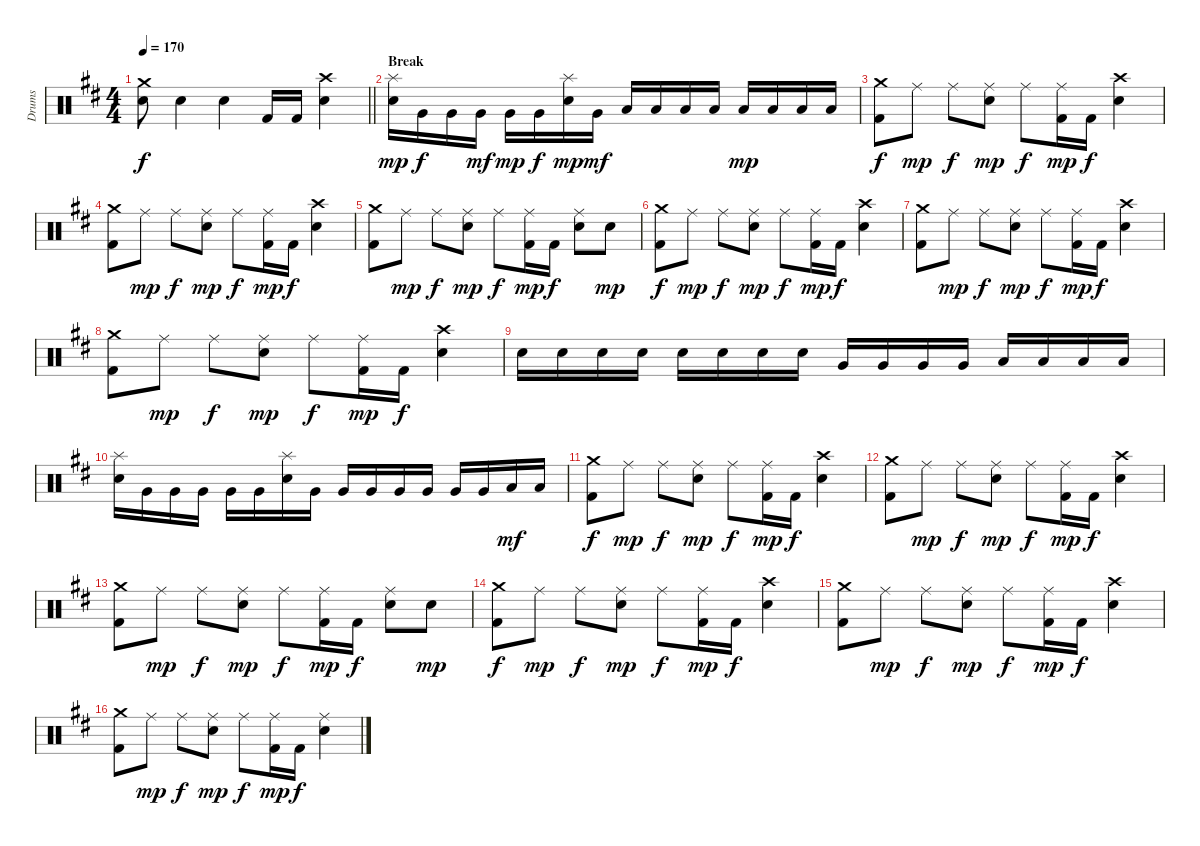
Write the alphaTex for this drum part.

\track ("Drums" "Drums") {instrument percussion}
\staff {score}
\articulation defaults
\ts (4 4)
\tempo 170
\clef neutral
\barLineRight lightlight
\ks d
("Crash medium (hit)" "Snare (hit) 2").8{dy f} "Snare (hit) 2".4 "Snare (hit) 2".4 "Kick (hit) 2".16 "Kick (hit) 2".16 ("Crash high (hit)" "Snare (hit) 2").4 |
\section ("" "Break")
("Splash (hit)" "Snare (hit) 2").16{dy mp} "Very Low Tom (hit)".16{dy f} "Very Low Tom (hit)".16 "Very Low Tom (hit)".16{dy mf} "Very Low Tom (hit)".16{dy mp} "Very Low Tom (hit)".16{dy f} ("Splash (hit)" "Snare (hit) 2").16{dy mp} "Very Low Tom (hit)".16{dy mf} "Low Floor Tom (hit)".16 "Low Floor Tom (hit)".16 "Low Floor Tom (hit)".16 "Low Floor Tom (hit)".16 "Low Floor Tom (hit)".16{dy mp} "Low Floor Tom (hit)".16 "Low Floor Tom (hit)".16 "Low Floor Tom (hit)".16 |
("Crash medium (hit)" "Kick (hit) 2").8{dy f} "Ride (middle)".8{dy mp} "Ride (middle)".8{dy f} ("Ride (middle)" "Snare (hit) 2").8{dy mp} "Ride (middle)".8{dy f} ("Ride (middle)" "Kick (hit) 2").16{dy mp} "Kick (hit) 2".16{dy f} ("Crash high (hit)" "Snare (hit) 2").4 |
("Crash medium (hit)" "Kick (hit) 2").8 "Ride (middle)".8{dy mp} "Ride (middle)".8{dy f} ("Ride (middle)" "Snare (hit) 2").8{dy mp} "Ride (middle)".8{dy f} ("Ride (middle)" "Kick (hit) 2").16{dy mp} "Kick (hit) 2".16{dy f} ("Crash high (hit)" "Snare (hit) 2").4 |
("Crash medium (hit)" "Kick (hit) 2").8 "Ride (middle)".8{dy mp} "Ride (middle)".8{dy f} ("Ride (middle)" "Snare (hit) 2").8{dy mp} "Ride (middle)".8{dy f} ("Ride (middle)" "Kick (hit) 2").16{dy mp} "Kick (hit) 2".16{dy f} ("Ride (middle)" "Snare (hit) 2").8 "Snare (hit) 2".8{dy mp} |
("Crash medium (hit)" "Kick (hit) 2").8{dy f} "Ride (middle)".8{dy mp} "Ride (middle)".8{dy f} ("Ride (middle)" "Snare (hit) 2").8{dy mp} "Ride (middle)".8{dy f} ("Ride (middle)" "Kick (hit) 2").16{dy mp} "Kick (hit) 2".16{dy f} ("Crash high (hit)" "Snare (hit) 2").4 |
("Crash medium (hit)" "Kick (hit) 2").8 "Ride (middle)".8{dy mp} "Ride (middle)".8{dy f} ("Ride (middle)" "Snare (hit) 2").8{dy mp} "Ride (middle)".8{dy f} ("Ride (middle)" "Kick (hit) 2").16{dy mp} "Kick (hit) 2".16{dy f} ("Crash high (hit)" "Snare (hit) 2").4 |
("Crash medium (hit)" "Kick (hit) 2").8 "Ride (middle)".8{dy mp} "Ride (middle)".8{dy f} ("Ride (middle)" "Snare (hit) 2").8{dy mp} "Ride (middle)".8{dy f} ("Ride (middle)" "Kick (hit) 2").16{dy mp} "Kick (hit) 2".16{dy f} ("Crash high (hit)" "Snare (hit) 2").4 |
"Snare (hit) 2".16 "Snare (hit) 2".16 "Snare (hit) 2".16 "Snare (hit) 2".16 "Snare (hit) 2".16 "Snare (hit) 2".16 "Snare (hit) 2".16 "Snare (hit) 2".16 "Very Low Tom (hit)".16 "Very Low Tom (hit)".16 "Very Low Tom (hit)".16 "Very Low Tom (hit)".16 "Low Floor Tom (hit)".16 "Low Floor Tom (hit)".16 "Low Floor Tom (hit)".16 "Low Floor Tom (hit)".16 |
("Splash (hit)" "Snare (hit) 2").16 "Very Low Tom (hit)".16 "Very Low Tom (hit)".16 "Very Low Tom (hit)".16 "Very Low Tom (hit)".16 "Very Low Tom (hit)".16 ("Splash (hit)" "Snare (hit) 2").16 "Very Low Tom (hit)".16 "Very Low Tom (hit)".16 "Very Low Tom (hit)".16 "Very Low Tom (hit)".16 "Very Low Tom (hit)".16 "Very Low Tom (hit)".16 "Very Low Tom (hit)".16 "Low Floor Tom (hit)".16{dy mf} "Low Floor Tom (hit)".16 |
("Crash medium (hit)" "Kick (hit) 2").8{dy f} "Ride (middle)".8{dy mp} "Ride (middle)".8{dy f} ("Ride (middle)" "Snare (hit) 2").8{dy mp} "Ride (middle)".8{dy f} ("Ride (middle)" "Kick (hit) 2").16{dy mp} "Kick (hit) 2".16{dy f} ("Crash high (hit)" "Snare (hit) 2").4 |
("Crash medium (hit)" "Kick (hit) 2").8 "Ride (middle)".8{dy mp} "Ride (middle)".8{dy f} ("Ride (middle)" "Snare (hit) 2").8{dy mp} "Ride (middle)".8{dy f} ("Ride (middle)" "Kick (hit) 2").16{dy mp} "Kick (hit) 2".16{dy f} ("Crash high (hit)" "Snare (hit) 2").4 |
("Crash medium (hit)" "Kick (hit) 2").8 "Ride (middle)".8{dy mp} "Ride (middle)".8{dy f} ("Ride (middle)" "Snare (hit) 2").8{dy mp} "Ride (middle)".8{dy f} ("Ride (middle)" "Kick (hit) 2").16{dy mp} "Kick (hit) 2".16{dy f} ("Ride (middle)" "Snare (hit) 2").8 "Snare (hit) 2".8{dy mp} |
("Crash medium (hit)" "Kick (hit) 2").8{dy f} "Ride (middle)".8{dy mp} "Ride (middle)".8{dy f} ("Ride (middle)" "Snare (hit) 2").8{dy mp} "Ride (middle)".8{dy f} ("Ride (middle)" "Kick (hit) 2").16{dy mp} "Kick (hit) 2".16{dy f} ("Crash high (hit)" "Snare (hit) 2").4 |
("Crash medium (hit)" "Kick (hit) 2").8 "Ride (middle)".8{dy mp} "Ride (middle)".8{dy f} ("Ride (middle)" "Snare (hit) 2").8{dy mp} "Ride (middle)".8{dy f} ("Ride (middle)" "Kick (hit) 2").16{dy mp} "Kick (hit) 2".16{dy f} ("Crash high (hit)" "Snare (hit) 2").4 |
("Crash medium (hit)" "Kick (hit) 2").8 "Ride (middle)".8{dy mp} "Ride (middle)".8{dy f} ("Ride (middle)" "Snare (hit) 2").8{dy mp} "Ride (middle)".8{dy f} ("Ride (middle)" "Kick (hit) 2").16{dy mp} "Kick (hit) 2".16{dy f} ("Ride (middle)" "Snare (hit) 2").4
